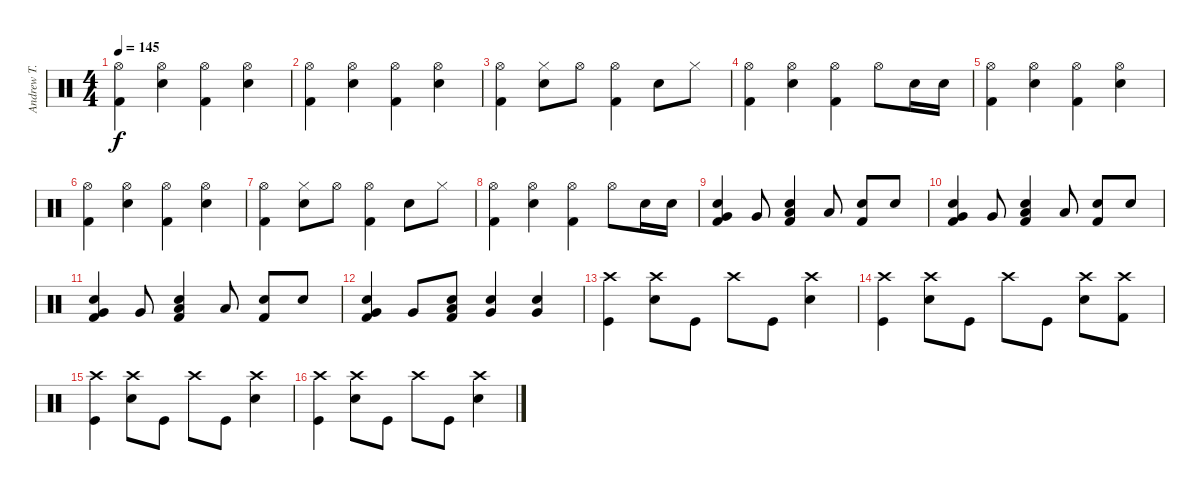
\track ("Andrew T." "Andrew T.") {instrument percussion}
\staff {score}
\articulation defaults
\ts (4 4)
\tempo 145
\clef neutral
\ks c
("Kick (hit) 2" "Hi-Hat (open)").4{dy f} ("Electric Snare (hit)" "Hi-Hat (open)").4 ("Kick (hit) 2" "Hi-Hat (open)").4 ("Electric Snare (hit)" "Hi-Hat (open)").4 |
("Kick (hit) 2" "Hi-Hat (open)").4 ("Electric Snare (hit)" "Hi-Hat (open)").4 ("Kick (hit) 2" "Hi-Hat (open)").4 ("Electric Snare (hit)" "Hi-Hat (open)").4 |
("Hi-Hat (open)" "Kick (hit) 2").4 ("Hi-Hat (closed)" "Electric Snare (hit)").8 "Hi-Hat (open)".8 ("Kick (hit) 2" "Hi-Hat (open)").4 "Electric Snare (hit)".8 "Hi-Hat (closed)".8 |
("Hi-Hat (open)" "Kick (hit) 2").4 ("Hi-Hat (open)" "Electric Snare (hit)").4 ("Hi-Hat (open)" "Kick (hit) 2").4 "Hi-Hat (open)".8 "Electric Snare (hit)".16 "Electric Snare (hit)".16 |
("Kick (hit) 2" "Hi-Hat (open)").4 ("Electric Snare (hit)" "Hi-Hat (open)").4 ("Kick (hit) 2" "Hi-Hat (open)").4 ("Electric Snare (hit)" "Hi-Hat (open)").4 |
("Kick (hit) 2" "Hi-Hat (open)").4 ("Electric Snare (hit)" "Hi-Hat (open)").4 ("Kick (hit) 2" "Hi-Hat (open)").4 ("Electric Snare (hit)" "Hi-Hat (open)").4 |
("Hi-Hat (open)" "Kick (hit) 2").4 ("Hi-Hat (closed)" "Electric Snare (hit)").8 "Hi-Hat (open)".8 ("Kick (hit) 2" "Hi-Hat (open)").4 "Electric Snare (hit)".8 "Hi-Hat (closed)".8 |
("Hi-Hat (open)" "Kick (hit) 2").4 ("Hi-Hat (open)" "Electric Snare (hit)").4 ("Hi-Hat (open)" "Kick (hit) 2").4 "Hi-Hat (open)".8 "Electric Snare (hit)".16 "Electric Snare (hit)".16 |
("Kick (hit) 2" "Electric Snare (hit)" "Very Low Tom (hit)").4 "Very Low Tom (hit)".8 ("Kick (hit) 2" "Electric Snare (hit)" "Low Tom (hit)").4 "Low Tom (hit)".8 ("Kick (hit) 2" "Electric Snare (hit)").8 "Electric Snare (hit)".8 |
("Kick (hit) 2" "Electric Snare (hit)" "Very Low Tom (hit)").4 "Very Low Tom (hit)".8 ("Kick (hit) 2" "Electric Snare (hit)" "Low Tom (hit)").4 "Low Tom (hit)".8 ("Kick (hit) 2" "Electric Snare (hit)").8 "Electric Snare (hit)".8 |
("Kick (hit) 2" "Electric Snare (hit)" "Very Low Tom (hit)").4 "Very Low Tom (hit)".8 ("Kick (hit) 2" "Electric Snare (hit)" "Low Tom (hit)").4 "Low Tom (hit)".8 ("Kick (hit) 2" "Electric Snare (hit)").8 "Electric Snare (hit)".8 |
("Kick (hit) 2" "Electric Snare (hit)" "Very Low Tom (hit)").4 "Very Low Tom (hit)".8 ("Kick (hit) 2" "Electric Snare (hit)" "Low Tom (hit)").8 ("Very Low Tom (hit)" "Electric Snare (hit)").4 ("Electric Snare (hit)" "Very Low Tom (hit)").4 |
("Crash high (hit)" "Kick (hit)").4 ("Crash high (hit)" "Snare (hit) 2").8 "Kick (hit)".8 "Crash high (hit)".8 "Kick (hit)".8 ("Crash high (hit)" "Snare (hit) 2").4 |
("Crash high (hit)" "Kick (hit)").4 ("Crash high (hit)" "Snare (hit) 2").8 "Kick (hit)".8 "Crash high (hit)".8 "Kick (hit)".8 ("Crash high (hit)" "Snare (hit) 2").8 ("Kick (hit) 2" "Crash high (hit)").8 |
("Crash high (hit)" "Kick (hit)").4 ("Crash high (hit)" "Snare (hit) 2").8 "Kick (hit)".8 "Crash high (hit)".8 "Kick (hit)".8 ("Crash high (hit)" "Snare (hit) 2").4 |
("Crash high (hit)" "Kick (hit)").4 ("Crash high (hit)" "Snare (hit) 2").8 "Kick (hit)".8 "Crash high (hit)".8 "Kick (hit)".8 ("Crash high (hit)" "Snare (hit) 2").4
